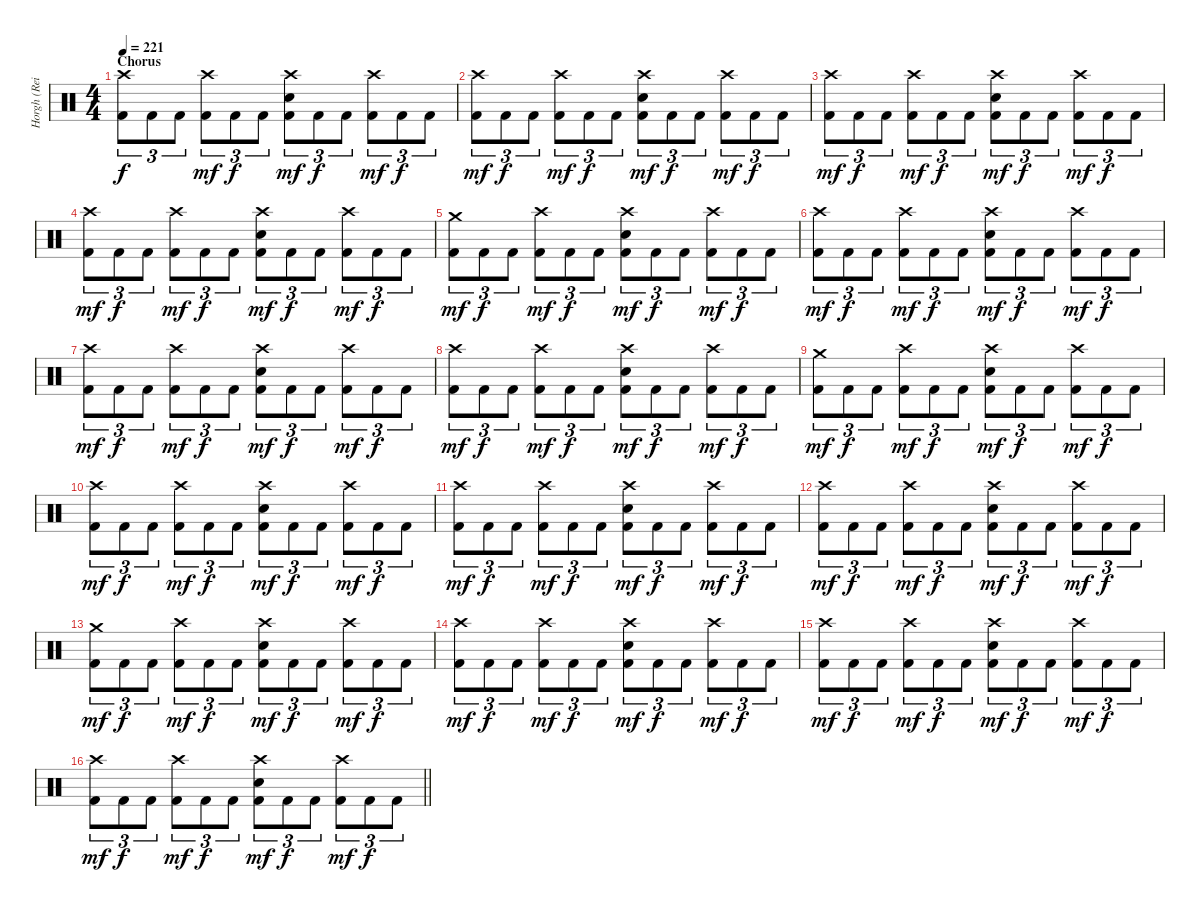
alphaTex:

\track ("Horgh (Reidar Horghagen)" "Horgh (Rei") {instrument percussion}
\staff {score}
\articulation defaults
\ts (4 4)
\section ("" "Chorus")
\tempo 221
\clef neutral
\ks c
("Crash high (hit)" "Kick (hit) 2").8{tu (3 2) dy f} "Kick (hit) 2".8{tu (3 2)} "Kick (hit) 2".8{tu (3 2)} ("Crash high (hit)" "Kick (hit) 2").8{tu (3 2) dy mf} "Kick (hit) 2".8{tu (3 2) dy f} "Kick (hit) 2".8{tu (3 2)} ("Crash high (hit)" "Snare (hit) 2" "Kick (hit) 2").8{tu (3 2) dy mf} "Kick (hit) 2".8{tu (3 2) dy f} "Kick (hit) 2".8{tu (3 2)} ("Crash high (hit)" "Kick (hit) 2").8{tu (3 2) dy mf} "Kick (hit) 2".8{tu (3 2) dy f} "Kick (hit) 2".8{tu (3 2)} |
("Crash high (hit)" "Kick (hit) 2").8{tu (3 2) dy mf} "Kick (hit) 2".8{tu (3 2) dy f} "Kick (hit) 2".8{tu (3 2)} ("Crash high (hit)" "Kick (hit) 2").8{tu (3 2) dy mf} "Kick (hit) 2".8{tu (3 2) dy f} "Kick (hit) 2".8{tu (3 2)} ("Crash high (hit)" "Snare (hit) 2" "Kick (hit) 2").8{tu (3 2) dy mf} "Kick (hit) 2".8{tu (3 2) dy f} "Kick (hit) 2".8{tu (3 2)} ("Crash high (hit)" "Kick (hit) 2").8{tu (3 2) dy mf} "Kick (hit) 2".8{tu (3 2) dy f} "Kick (hit) 2".8{tu (3 2)} |
("Crash high (hit)" "Kick (hit) 2").8{tu (3 2) dy mf} "Kick (hit) 2".8{tu (3 2) dy f} "Kick (hit) 2".8{tu (3 2)} ("Crash high (hit)" "Kick (hit) 2").8{tu (3 2) dy mf} "Kick (hit) 2".8{tu (3 2) dy f} "Kick (hit) 2".8{tu (3 2)} ("Crash high (hit)" "Snare (hit) 2" "Kick (hit) 2").8{tu (3 2) dy mf} "Kick (hit) 2".8{tu (3 2) dy f} "Kick (hit) 2".8{tu (3 2)} ("Crash high (hit)" "Kick (hit) 2").8{tu (3 2) dy mf} "Kick (hit) 2".8{tu (3 2) dy f} "Kick (hit) 2".8{tu (3 2)} |
("Crash high (hit)" "Kick (hit) 2").8{tu (3 2) dy mf} "Kick (hit) 2".8{tu (3 2) dy f} "Kick (hit) 2".8{tu (3 2)} ("Crash high (hit)" "Kick (hit) 2").8{tu (3 2) dy mf} "Kick (hit) 2".8{tu (3 2) dy f} "Kick (hit) 2".8{tu (3 2)} ("Crash high (hit)" "Snare (hit) 2" "Kick (hit) 2").8{tu (3 2) dy mf} "Kick (hit) 2".8{tu (3 2) dy f} "Kick (hit) 2".8{tu (3 2)} ("Crash high (hit)" "Kick (hit) 2").8{tu (3 2) dy mf} "Kick (hit) 2".8{tu (3 2) dy f} "Kick (hit) 2".8{tu (3 2)} |
("Crash medium (hit)" "Kick (hit) 2").8{tu (3 2) dy mf} "Kick (hit) 2".8{tu (3 2) dy f} "Kick (hit) 2".8{tu (3 2)} ("Crash high (hit)" "Kick (hit) 2").8{tu (3 2) dy mf} "Kick (hit) 2".8{tu (3 2) dy f} "Kick (hit) 2".8{tu (3 2)} ("Crash high (hit)" "Snare (hit) 2" "Kick (hit) 2").8{tu (3 2) dy mf} "Kick (hit) 2".8{tu (3 2) dy f} "Kick (hit) 2".8{tu (3 2)} ("Crash high (hit)" "Kick (hit) 2").8{tu (3 2) dy mf} "Kick (hit) 2".8{tu (3 2) dy f} "Kick (hit) 2".8{tu (3 2)} |
("Crash high (hit)" "Kick (hit) 2").8{tu (3 2) dy mf} "Kick (hit) 2".8{tu (3 2) dy f} "Kick (hit) 2".8{tu (3 2)} ("Crash high (hit)" "Kick (hit) 2").8{tu (3 2) dy mf} "Kick (hit) 2".8{tu (3 2) dy f} "Kick (hit) 2".8{tu (3 2)} ("Crash high (hit)" "Snare (hit) 2" "Kick (hit) 2").8{tu (3 2) dy mf} "Kick (hit) 2".8{tu (3 2) dy f} "Kick (hit) 2".8{tu (3 2)} ("Crash high (hit)" "Kick (hit) 2").8{tu (3 2) dy mf} "Kick (hit) 2".8{tu (3 2) dy f} "Kick (hit) 2".8{tu (3 2)} |
("Crash high (hit)" "Kick (hit) 2").8{tu (3 2) dy mf} "Kick (hit) 2".8{tu (3 2) dy f} "Kick (hit) 2".8{tu (3 2)} ("Crash high (hit)" "Kick (hit) 2").8{tu (3 2) dy mf} "Kick (hit) 2".8{tu (3 2) dy f} "Kick (hit) 2".8{tu (3 2)} ("Crash high (hit)" "Snare (hit) 2" "Kick (hit) 2").8{tu (3 2) dy mf} "Kick (hit) 2".8{tu (3 2) dy f} "Kick (hit) 2".8{tu (3 2)} ("Crash high (hit)" "Kick (hit) 2").8{tu (3 2) dy mf} "Kick (hit) 2".8{tu (3 2) dy f} "Kick (hit) 2".8{tu (3 2)} |
("Crash high (hit)" "Kick (hit) 2").8{tu (3 2) dy mf} "Kick (hit) 2".8{tu (3 2) dy f} "Kick (hit) 2".8{tu (3 2)} ("Crash high (hit)" "Kick (hit) 2").8{tu (3 2) dy mf} "Kick (hit) 2".8{tu (3 2) dy f} "Kick (hit) 2".8{tu (3 2)} ("Crash high (hit)" "Snare (hit) 2" "Kick (hit) 2").8{tu (3 2) dy mf} "Kick (hit) 2".8{tu (3 2) dy f} "Kick (hit) 2".8{tu (3 2)} ("Crash high (hit)" "Kick (hit) 2").8{tu (3 2) dy mf} "Kick (hit) 2".8{tu (3 2) dy f} "Kick (hit) 2".8{tu (3 2)} |
("Crash medium (hit)" "Kick (hit) 2").8{tu (3 2) dy mf} "Kick (hit) 2".8{tu (3 2) dy f} "Kick (hit) 2".8{tu (3 2)} ("Crash high (hit)" "Kick (hit) 2").8{tu (3 2) dy mf} "Kick (hit) 2".8{tu (3 2) dy f} "Kick (hit) 2".8{tu (3 2)} ("Crash high (hit)" "Snare (hit) 2" "Kick (hit) 2").8{tu (3 2) dy mf} "Kick (hit) 2".8{tu (3 2) dy f} "Kick (hit) 2".8{tu (3 2)} ("Crash high (hit)" "Kick (hit) 2").8{tu (3 2) dy mf} "Kick (hit) 2".8{tu (3 2) dy f} "Kick (hit) 2".8{tu (3 2)} |
("Crash high (hit)" "Kick (hit) 2").8{tu (3 2) dy mf} "Kick (hit) 2".8{tu (3 2) dy f} "Kick (hit) 2".8{tu (3 2)} ("Crash high (hit)" "Kick (hit) 2").8{tu (3 2) dy mf} "Kick (hit) 2".8{tu (3 2) dy f} "Kick (hit) 2".8{tu (3 2)} ("Crash high (hit)" "Snare (hit) 2" "Kick (hit) 2").8{tu (3 2) dy mf} "Kick (hit) 2".8{tu (3 2) dy f} "Kick (hit) 2".8{tu (3 2)} ("Crash high (hit)" "Kick (hit) 2").8{tu (3 2) dy mf} "Kick (hit) 2".8{tu (3 2) dy f} "Kick (hit) 2".8{tu (3 2)} |
("Crash high (hit)" "Kick (hit) 2").8{tu (3 2) dy mf} "Kick (hit) 2".8{tu (3 2) dy f} "Kick (hit) 2".8{tu (3 2)} ("Crash high (hit)" "Kick (hit) 2").8{tu (3 2) dy mf} "Kick (hit) 2".8{tu (3 2) dy f} "Kick (hit) 2".8{tu (3 2)} ("Crash high (hit)" "Snare (hit) 2" "Kick (hit) 2").8{tu (3 2) dy mf} "Kick (hit) 2".8{tu (3 2) dy f} "Kick (hit) 2".8{tu (3 2)} ("Crash high (hit)" "Kick (hit) 2").8{tu (3 2) dy mf} "Kick (hit) 2".8{tu (3 2) dy f} "Kick (hit) 2".8{tu (3 2)} |
("Crash high (hit)" "Kick (hit) 2").8{tu (3 2) dy mf} "Kick (hit) 2".8{tu (3 2) dy f} "Kick (hit) 2".8{tu (3 2)} ("Crash high (hit)" "Kick (hit) 2").8{tu (3 2) dy mf} "Kick (hit) 2".8{tu (3 2) dy f} "Kick (hit) 2".8{tu (3 2)} ("Crash high (hit)" "Snare (hit) 2" "Kick (hit) 2").8{tu (3 2) dy mf} "Kick (hit) 2".8{tu (3 2) dy f} "Kick (hit) 2".8{tu (3 2)} ("Crash high (hit)" "Kick (hit) 2").8{tu (3 2) dy mf} "Kick (hit) 2".8{tu (3 2) dy f} "Kick (hit) 2".8{tu (3 2)} |
("Crash medium (hit)" "Kick (hit) 2").8{tu (3 2) dy mf} "Kick (hit) 2".8{tu (3 2) dy f} "Kick (hit) 2".8{tu (3 2)} ("Crash high (hit)" "Kick (hit) 2").8{tu (3 2) dy mf} "Kick (hit) 2".8{tu (3 2) dy f} "Kick (hit) 2".8{tu (3 2)} ("Crash high (hit)" "Snare (hit) 2" "Kick (hit) 2").8{tu (3 2) dy mf} "Kick (hit) 2".8{tu (3 2) dy f} "Kick (hit) 2".8{tu (3 2)} ("Crash high (hit)" "Kick (hit) 2").8{tu (3 2) dy mf} "Kick (hit) 2".8{tu (3 2) dy f} "Kick (hit) 2".8{tu (3 2)} |
("Crash high (hit)" "Kick (hit) 2").8{tu (3 2) dy mf} "Kick (hit) 2".8{tu (3 2) dy f} "Kick (hit) 2".8{tu (3 2)} ("Crash high (hit)" "Kick (hit) 2").8{tu (3 2) dy mf} "Kick (hit) 2".8{tu (3 2) dy f} "Kick (hit) 2".8{tu (3 2)} ("Crash high (hit)" "Snare (hit) 2" "Kick (hit) 2").8{tu (3 2) dy mf} "Kick (hit) 2".8{tu (3 2) dy f} "Kick (hit) 2".8{tu (3 2)} ("Crash high (hit)" "Kick (hit) 2").8{tu (3 2) dy mf} "Kick (hit) 2".8{tu (3 2) dy f} "Kick (hit) 2".8{tu (3 2)} |
("Crash high (hit)" "Kick (hit) 2").8{tu (3 2) dy mf} "Kick (hit) 2".8{tu (3 2) dy f} "Kick (hit) 2".8{tu (3 2)} ("Crash high (hit)" "Kick (hit) 2").8{tu (3 2) dy mf} "Kick (hit) 2".8{tu (3 2) dy f} "Kick (hit) 2".8{tu (3 2)} ("Crash high (hit)" "Snare (hit) 2" "Kick (hit) 2").8{tu (3 2) dy mf} "Kick (hit) 2".8{tu (3 2) dy f} "Kick (hit) 2".8{tu (3 2)} ("Crash high (hit)" "Kick (hit) 2").8{tu (3 2) dy mf} "Kick (hit) 2".8{tu (3 2) dy f} "Kick (hit) 2".8{tu (3 2)} |
\barLineRight lightlight
("Crash high (hit)" "Kick (hit) 2").8{tu (3 2) dy mf} "Kick (hit) 2".8{tu (3 2) dy f} "Kick (hit) 2".8{tu (3 2)} ("Crash high (hit)" "Kick (hit) 2").8{tu (3 2) dy mf} "Kick (hit) 2".8{tu (3 2) dy f} "Kick (hit) 2".8{tu (3 2)} ("Crash high (hit)" "Snare (hit) 2" "Kick (hit) 2").8{tu (3 2) dy mf} "Kick (hit) 2".8{tu (3 2) dy f} "Kick (hit) 2".8{tu (3 2)} ("Crash high (hit)" "Kick (hit) 2").8{tu (3 2) dy mf} "Kick (hit) 2".8{tu (3 2) dy f} "Kick (hit) 2".8{tu (3 2)}
